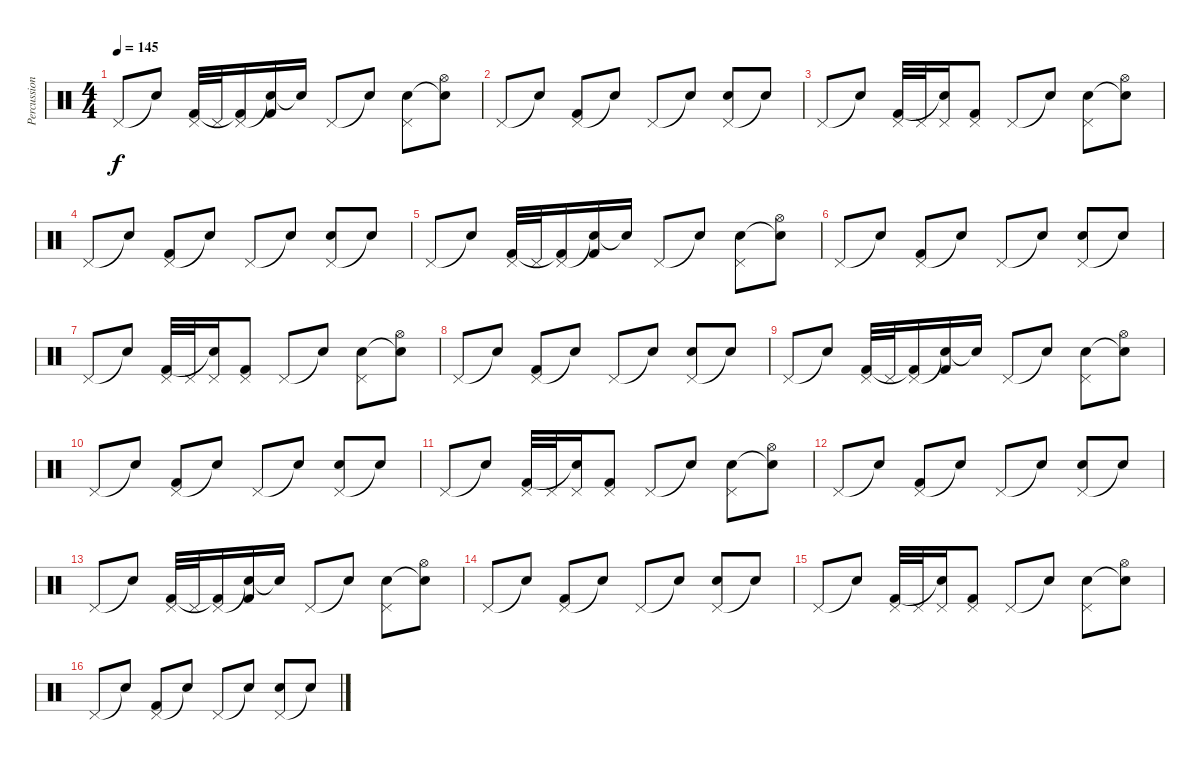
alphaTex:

\track ("Percussion" "Percussion") {instrument percussion}
\staff {score}
\articulation defaults
\ts (4 4)
\tempo 145
\clef neutral
\ks c "Pedal Hi-Hat (hit)".8{dy f} "Snare (hit)"{t}.8
("Pedal Hi-Hat (hit)" "Kick (hit) 2").32 "Pedal Hi-Hat (hit)".32 ("Pedal Hi-Hat (hit)" "Kick (hit) 2"{t}).16 ("Snare (hit)"{t} "Kick (hit) 2").16 "Snare (hit)"{t}.16 "Pedal Hi-Hat (hit)".8 "Snare (hit)"{t}.8 ("Pedal Hi-Hat (hit)" "Snare (hit) 2").8 ("Hi-Hat (open)" "Snare (hit)"{t}).8 |
"Pedal Hi-Hat (hit)".8 "Snare (hit)"{t}.8 ("Pedal Hi-Hat (hit)" "Kick (hit) 2").8 "Snare (hit)"{t}.8 "Pedal Hi-Hat (hit)".8 "Snare (hit)"{t}.8 ("Pedal Hi-Hat (hit)" "Snare (hit) 2").8 "Snare (hit)"{t}.8 |
"Pedal Hi-Hat (hit)".8 "Snare (hit)"{t}.8 ("Pedal Hi-Hat (hit)" "Kick (hit) 2").32 "Pedal Hi-Hat (hit)".32 ("Pedal Hi-Hat (hit)" "Snare (hit)"{t}).16 ("Pedal Hi-Hat (hit)" "Kick (hit) 2").8 "Pedal Hi-Hat (hit)".8 "Snare (hit)"{t}.8 ("Pedal Hi-Hat (hit)" "Snare (hit) 2").8 ("Hi-Hat (open)" "Snare (hit)"{t}).8 |
"Pedal Hi-Hat (hit)".8 "Snare (hit)"{t}.8 ("Pedal Hi-Hat (hit)" "Kick (hit) 2").8 "Snare (hit)"{t}.8 "Pedal Hi-Hat (hit)".8 "Snare (hit)"{t}.8 ("Pedal Hi-Hat (hit)" "Snare (hit) 2").8 "Snare (hit)"{t}.8 |
"Pedal Hi-Hat (hit)".8 "Snare (hit)"{t}.8 ("Pedal Hi-Hat (hit)" "Kick (hit) 2").32 "Pedal Hi-Hat (hit)".32 ("Pedal Hi-Hat (hit)" "Kick (hit) 2"{t}).16 ("Snare (hit)"{t} "Kick (hit) 2").16 "Snare (hit)"{t}.16 "Pedal Hi-Hat (hit)".8 "Snare (hit)"{t}.8 ("Pedal Hi-Hat (hit)" "Snare (hit) 2").8 ("Hi-Hat (open)" "Snare (hit)"{t}).8 |
"Pedal Hi-Hat (hit)".8 "Snare (hit)"{t}.8 ("Pedal Hi-Hat (hit)" "Kick (hit) 2").8 "Snare (hit)"{t}.8 "Pedal Hi-Hat (hit)".8 "Snare (hit)"{t}.8 ("Pedal Hi-Hat (hit)" "Snare (hit) 2").8 "Snare (hit)"{t}.8 |
"Pedal Hi-Hat (hit)".8 "Snare (hit)"{t}.8 ("Pedal Hi-Hat (hit)" "Kick (hit) 2").32 "Pedal Hi-Hat (hit)".32 ("Pedal Hi-Hat (hit)" "Snare (hit)"{t}).16 ("Pedal Hi-Hat (hit)" "Kick (hit) 2").8 "Pedal Hi-Hat (hit)".8 "Snare (hit)"{t}.8 ("Pedal Hi-Hat (hit)" "Snare (hit) 2").8 ("Hi-Hat (open)" "Snare (hit)"{t}).8 |
"Pedal Hi-Hat (hit)".8 "Snare (hit)"{t}.8 ("Pedal Hi-Hat (hit)" "Kick (hit) 2").8 "Snare (hit)"{t}.8 "Pedal Hi-Hat (hit)".8 "Snare (hit)"{t}.8 ("Pedal Hi-Hat (hit)" "Snare (hit) 2").8 "Snare (hit)"{t}.8 |
"Pedal Hi-Hat (hit)".8 "Snare (hit)"{t}.8 ("Pedal Hi-Hat (hit)" "Kick (hit) 2").32 "Pedal Hi-Hat (hit)".32 ("Pedal Hi-Hat (hit)" "Kick (hit) 2"{t}).16 ("Snare (hit)"{t} "Kick (hit) 2").16 "Snare (hit)"{t}.16 "Pedal Hi-Hat (hit)".8 "Snare (hit)"{t}.8 ("Pedal Hi-Hat (hit)" "Snare (hit) 2").8 ("Hi-Hat (open)" "Snare (hit)"{t}).8 |
"Pedal Hi-Hat (hit)".8 "Snare (hit)"{t}.8 ("Pedal Hi-Hat (hit)" "Kick (hit) 2").8 "Snare (hit)"{t}.8 "Pedal Hi-Hat (hit)".8 "Snare (hit)"{t}.8 ("Pedal Hi-Hat (hit)" "Snare (hit) 2").8 "Snare (hit)"{t}.8 |
"Pedal Hi-Hat (hit)".8 "Snare (hit)"{t}.8 ("Pedal Hi-Hat (hit)" "Kick (hit) 2").32 "Pedal Hi-Hat (hit)".32 ("Pedal Hi-Hat (hit)" "Snare (hit)"{t}).16 ("Pedal Hi-Hat (hit)" "Kick (hit) 2").8 "Pedal Hi-Hat (hit)".8 "Snare (hit)"{t}.8 ("Pedal Hi-Hat (hit)" "Snare (hit) 2").8 ("Hi-Hat (open)" "Snare (hit)"{t}).8 |
"Pedal Hi-Hat (hit)".8 "Snare (hit)"{t}.8 ("Pedal Hi-Hat (hit)" "Kick (hit) 2").8 "Snare (hit)"{t}.8 "Pedal Hi-Hat (hit)".8 "Snare (hit)"{t}.8 ("Pedal Hi-Hat (hit)" "Snare (hit) 2").8 "Snare (hit)"{t}.8 |
"Pedal Hi-Hat (hit)".8 "Snare (hit)"{t}.8 ("Pedal Hi-Hat (hit)" "Kick (hit) 2").32 "Pedal Hi-Hat (hit)".32 ("Pedal Hi-Hat (hit)" "Kick (hit) 2"{t}).16 ("Snare (hit)"{t} "Kick (hit) 2").16 "Snare (hit)"{t}.16 "Pedal Hi-Hat (hit)".8 "Snare (hit)"{t}.8 ("Pedal Hi-Hat (hit)" "Snare (hit) 2").8 ("Hi-Hat (open)" "Snare (hit)"{t}).8 |
"Pedal Hi-Hat (hit)".8 "Snare (hit)"{t}.8 ("Pedal Hi-Hat (hit)" "Kick (hit) 2").8 "Snare (hit)"{t}.8 "Pedal Hi-Hat (hit)".8 "Snare (hit)"{t}.8 ("Pedal Hi-Hat (hit)" "Snare (hit) 2").8 "Snare (hit)"{t}.8 |
"Pedal Hi-Hat (hit)".8 "Snare (hit)"{t}.8 ("Pedal Hi-Hat (hit)" "Kick (hit) 2").32 "Pedal Hi-Hat (hit)".32 ("Pedal Hi-Hat (hit)" "Snare (hit)"{t}).16 ("Pedal Hi-Hat (hit)" "Kick (hit) 2").8 "Pedal Hi-Hat (hit)".8 "Snare (hit)"{t}.8 ("Pedal Hi-Hat (hit)" "Snare (hit) 2").8 ("Hi-Hat (open)" "Snare (hit)"{t}).8 |
"Pedal Hi-Hat (hit)".8 "Snare (hit)"{t}.8 ("Pedal Hi-Hat (hit)" "Kick (hit) 2").8 "Snare (hit)"{t}.8 "Pedal Hi-Hat (hit)".8 "Snare (hit)"{t}.8 ("Pedal Hi-Hat (hit)" "Snare (hit) 2").8 "Snare (hit)"{t}.8
